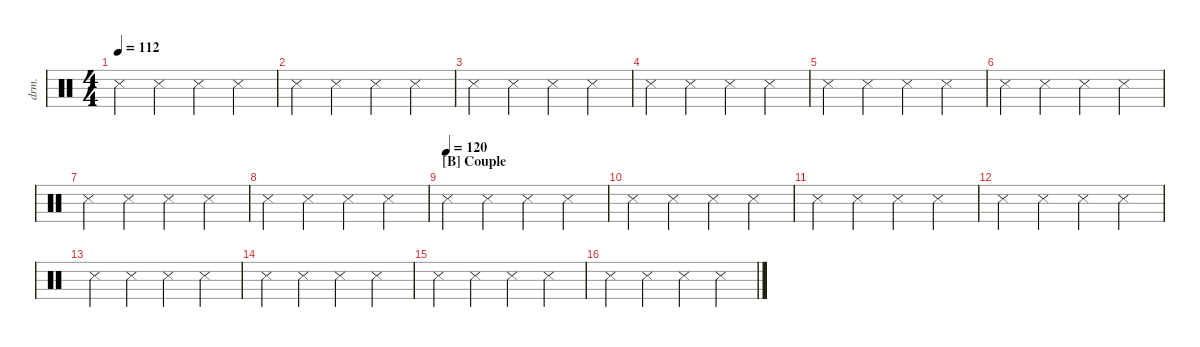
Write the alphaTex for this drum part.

\defaultSystemsLayout 4
\hideDynamics
\bracketExtendMode nobrackets
\otherSystemsTrackNameOrientation horizontal
\track ("Drumkit" "drm.") {instrument percussion}
\staff {score}
\articulation defaults
\ts (4 4)
\tempo 112
\clef neutral
\ks c "Metronome (hit)".4{dy mf beam Down} "Metronome (hit)".4{beam Down} "Metronome (hit)".4{beam Down} "Metronome (hit)".4{beam Down}
|
"Metronome (hit)".4{beam Down} "Metronome (hit)".4{beam Down} "Metronome (hit)".4{beam Down} "Metronome (hit)".4{beam Down} |
"Metronome (hit)".4{beam Down} "Metronome (hit)".4{beam Down} "Metronome (hit)".4{beam Down} "Metronome (hit)".4{beam Down} |
"Metronome (hit)".4{beam Down} "Metronome (hit)".4{beam Down} "Metronome (hit)".4{beam Down} "Metronome (hit)".4{beam Down} |
"Metronome (hit)".4{beam Down} "Metronome (hit)".4{beam Down} "Metronome (hit)".4{beam Down} "Metronome (hit)".4{beam Down} |
"Metronome (hit)".4{beam Down} "Metronome (hit)".4{beam Down} "Metronome (hit)".4{beam Down} "Metronome (hit)".4{beam Down} |
"Metronome (hit)".4{beam Down} "Metronome (hit)".4{beam Down} "Metronome (hit)".4{beam Down} "Metronome (hit)".4{beam Down} |
"Metronome (hit)".4{beam Down} "Metronome (hit)".4{beam Down} "Metronome (hit)".4{beam Down} "Metronome (hit)".4{beam Down} |
\section ("B" "Couple")
\tempo (120)
"Metronome (hit)".4{beam Down} "Metronome (hit)".4{beam Down} "Metronome (hit)".4{beam Down} "Metronome (hit)".4{beam Down} |
"Metronome (hit)".4{beam Down} "Metronome (hit)".4{beam Down} "Metronome (hit)".4{beam Down} "Metronome (hit)".4{beam Down} |
"Metronome (hit)".4{beam Down} "Metronome (hit)".4{beam Down} "Metronome (hit)".4{beam Down} "Metronome (hit)".4{beam Down} |
"Metronome (hit)".4{beam Down} "Metronome (hit)".4{beam Down} "Metronome (hit)".4{beam Down} "Metronome (hit)".4{beam Down} |
"Metronome (hit)".4{beam Down} "Metronome (hit)".4{beam Down} "Metronome (hit)".4{beam Down} "Metronome (hit)".4{beam Down} |
"Metronome (hit)".4{beam Down} "Metronome (hit)".4{beam Down} "Metronome (hit)".4{beam Down} "Metronome (hit)".4{beam Down} |
"Metronome (hit)".4{beam Down} "Metronome (hit)".4{beam Down} "Metronome (hit)".4{beam Down} "Metronome (hit)".4{beam Down} |
"Metronome (hit)".4{beam Down} "Metronome (hit)".4{beam Down} "Metronome (hit)".4{beam Down} "Metronome (hit)".4{beam Down}
